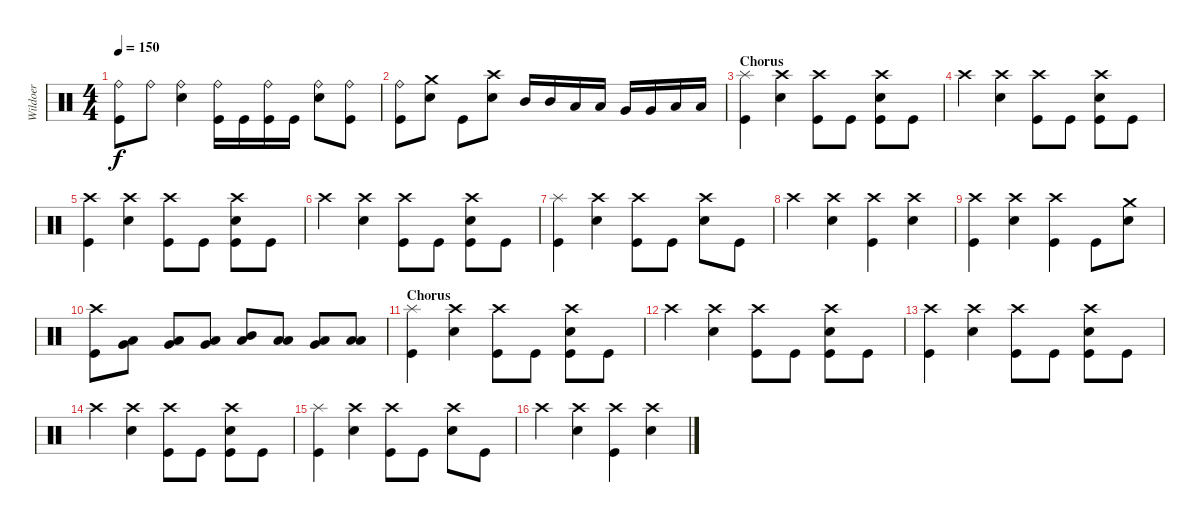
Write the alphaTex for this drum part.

\track ("Wildoer" "Wildoer") {instrument percussion}
\staff {score}
\articulation defaults
\ts (4 4)
\tempo 150
\clef neutral
\ks c
("Ride (bell)" "Kick (hit)").8{dy f} "Ride (bell)".8 ("Ride (bell)" "Electric Snare (hit)").4 ("Ride (bell)" "Kick (hit)").16 "Kick (hit)".16 ("Ride (bell)" "Kick (hit)").16 "Kick (hit)".16 ("Ride (bell)" "Electric Snare (hit)").8 ("Ride (bell)" "Kick (hit)").8 |
("Ride (bell)" "Kick (hit)").8 ("Crash medium (hit)" "Electric Snare (hit)").8 "Kick (hit)".8 ("Crash high (hit)" "Electric Snare (hit)").8 "Mid Tom (hit)".16 "Mid Tom (hit)".16 "Low Tom (hit)".16 "Low Tom (hit)".16 "Very Low Tom (hit)".16 "Very Low Tom (hit)".16 "Low Floor Tom (hit)".16 "Low Floor Tom (hit)".16 |
\section ("" "Chorus")
("Splash (hit)" "Kick (hit)").4 ("Crash high (hit)" "Electric Snare (hit)").4 ("Crash high (hit)" "Kick (hit)").8 "Kick (hit)".8 ("Crash high (hit)" "Electric Snare (hit)" "Kick (hit)").8 "Kick (hit)".8 |
"Crash high (hit)".4 ("Crash high (hit)" "Electric Snare (hit)").4 ("Crash high (hit)" "Kick (hit)").8 "Kick (hit)".8 ("Crash high (hit)" "Electric Snare (hit)" "Kick (hit)").8 "Kick (hit)".8 |
("Crash high (hit)" "Kick (hit)").4 ("Crash high (hit)" "Electric Snare (hit)").4 ("Crash high (hit)" "Kick (hit)").8 "Kick (hit)".8 ("Crash high (hit)" "Electric Snare (hit)" "Kick (hit)").8 "Kick (hit)".8 |
"Crash high (hit)".4 ("Crash high (hit)" "Electric Snare (hit)").4 ("Crash high (hit)" "Kick (hit)").8 "Kick (hit)".8 ("Crash high (hit)" "Electric Snare (hit)" "Kick (hit)").8 "Kick (hit)".8 |
("Splash (hit)" "Kick (hit)").4 ("Crash high (hit)" "Electric Snare (hit)").4 ("Crash high (hit)" "Kick (hit)").8 "Kick (hit)".8 ("Crash high (hit)" "Electric Snare (hit)").8 "Kick (hit)".8 |
"Crash high (hit)".4 ("Crash high (hit)" "Electric Snare (hit)").4 ("Crash high (hit)" "Kick (hit)").4 ("Crash high (hit)" "Electric Snare (hit)").4 |
("Crash high (hit)" "Kick (hit)").4 ("Crash high (hit)" "Electric Snare (hit)").4 ("Crash high (hit)" "Kick (hit)").4 "Kick (hit)".8 ("Crash medium (hit)" "Electric Snare (hit)").8 |
("Crash high (hit)" "Kick (hit)").8 ("Low Floor Tom (hit)" "Very Low Tom (hit)").8 ("Low Floor Tom (hit)" "Very Low Tom (hit)").8 ("Low Floor Tom (hit)" "Very Low Tom (hit)").8 ("Mid Tom (hit)" "Low Floor Tom (hit)").8 ("Low Tom (hit)" "Low Floor Tom (hit)").8 ("Very Low Tom (hit)" "Low Floor Tom (hit)").8 ("Low Tom (hit)" "Low Floor Tom (hit)").8 |
\section ("" "Chorus")
("Splash (hit)" "Kick (hit)").4 ("Crash high (hit)" "Electric Snare (hit)").4 ("Crash high (hit)" "Kick (hit)").8 "Kick (hit)".8 ("Crash high (hit)" "Electric Snare (hit)" "Kick (hit)").8 "Kick (hit)".8 |
"Crash high (hit)".4 ("Crash high (hit)" "Electric Snare (hit)").4 ("Crash high (hit)" "Kick (hit)").8 "Kick (hit)".8 ("Crash high (hit)" "Electric Snare (hit)" "Kick (hit)").8 "Kick (hit)".8 |
("Crash high (hit)" "Kick (hit)").4 ("Crash high (hit)" "Electric Snare (hit)").4 ("Crash high (hit)" "Kick (hit)").8 "Kick (hit)".8 ("Crash high (hit)" "Electric Snare (hit)" "Kick (hit)").8 "Kick (hit)".8 |
"Crash high (hit)".4 ("Crash high (hit)" "Electric Snare (hit)").4 ("Crash high (hit)" "Kick (hit)").8 "Kick (hit)".8 ("Crash high (hit)" "Electric Snare (hit)" "Kick (hit)").8 "Kick (hit)".8 |
("Splash (hit)" "Kick (hit)").4 ("Crash high (hit)" "Electric Snare (hit)").4 ("Crash high (hit)" "Kick (hit)").8 "Kick (hit)".8 ("Crash high (hit)" "Electric Snare (hit)").8 "Kick (hit)".8 |
"Crash high (hit)".4 ("Crash high (hit)" "Electric Snare (hit)").4 ("Crash high (hit)" "Kick (hit)").4 ("Crash high (hit)" "Electric Snare (hit)").4
